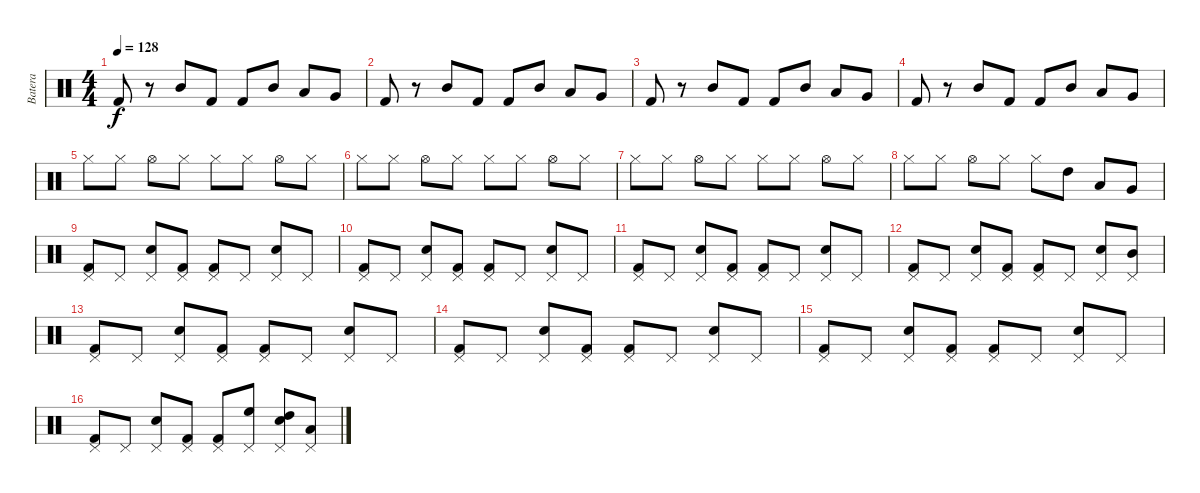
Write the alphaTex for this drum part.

\track ("Batera" "Batera") {instrument percussion}
\staff {score}
\articulation defaults
\ts (4 4)
\tempo 128
\clef neutral
\ks c "Kick (hit) 2".8{dy f}
r.8 "Mid Tom (hit)".8 "Kick (hit) 2".8 "Kick (hit) 2".8 "Mid Tom (hit)".8 "Low Tom (hit)".8 "Very Low Tom (hit)".8 |
"Kick (hit) 2".8 r.8 "Mid Tom (hit)".8 "Kick (hit) 2".8 "Kick (hit) 2".8 "Mid Tom (hit)".8 "Low Tom (hit)".8 "Very Low Tom (hit)".8 |
"Kick (hit) 2".8 r.8 "Mid Tom (hit)".8 "Kick (hit) 2".8 "Kick (hit) 2".8 "Mid Tom (hit)".8 "Low Tom (hit)".8 "Very Low Tom (hit)".8 |
"Kick (hit) 2".8 r.8 "Mid Tom (hit)".8 "Kick (hit) 2".8 "Kick (hit) 2".8 "Mid Tom (hit)".8 "Low Tom (hit)".8 "Very Low Tom (hit)".8 |
"Hi-Hat (closed)".8 "Hi-Hat (closed)".8 "Hi-Hat (open)".8 "Hi-Hat (closed)".8 "Hi-Hat (closed)".8 "Hi-Hat (closed)".8 "Hi-Hat (open)".8 "Hi-Hat (closed)".8 |
"Hi-Hat (closed)".8 "Hi-Hat (closed)".8 "Hi-Hat (open)".8 "Hi-Hat (closed)".8 "Hi-Hat (closed)".8 "Hi-Hat (closed)".8 "Hi-Hat (open)".8 "Hi-Hat (closed)".8 |
"Hi-Hat (closed)".8 "Hi-Hat (closed)".8 "Hi-Hat (open)".8 "Hi-Hat (closed)".8 "Hi-Hat (closed)".8 "Hi-Hat (closed)".8 "Hi-Hat (open)".8 "Hi-Hat (closed)".8 |
"Hi-Hat (closed)".8 "Hi-Hat (closed)".8 "Hi-Hat (open)".8 "Hi-Hat (closed)".8 "Hi-Hat (closed)".8 "High Tom (hit)".8 "Low Tom (hit)".8 "Very Low Tom (hit)".8 |
("Pedal Hi-Hat (hit)" "Kick (hit) 2").8 "Pedal Hi-Hat (hit)".8 ("Pedal Hi-Hat (hit)" "Snare (hit) 2").8 ("Pedal Hi-Hat (hit)" "Kick (hit) 2").8 ("Pedal Hi-Hat (hit)" "Kick (hit) 2").8 "Pedal Hi-Hat (hit)".8 ("Pedal Hi-Hat (hit)" "Snare (hit) 2").8 "Pedal Hi-Hat (hit)".8 |
("Pedal Hi-Hat (hit)" "Kick (hit) 2").8 "Pedal Hi-Hat (hit)".8 ("Pedal Hi-Hat (hit)" "Snare (hit) 2").8 ("Pedal Hi-Hat (hit)" "Kick (hit) 2").8 ("Pedal Hi-Hat (hit)" "Kick (hit) 2").8 "Pedal Hi-Hat (hit)".8 ("Pedal Hi-Hat (hit)" "Snare (hit) 2").8 "Pedal Hi-Hat (hit)".8 |
("Pedal Hi-Hat (hit)" "Kick (hit) 2").8 "Pedal Hi-Hat (hit)".8 ("Pedal Hi-Hat (hit)" "Snare (hit) 2").8 ("Pedal Hi-Hat (hit)" "Kick (hit) 2").8 ("Pedal Hi-Hat (hit)" "Kick (hit) 2").8 "Pedal Hi-Hat (hit)".8 ("Pedal Hi-Hat (hit)" "Snare (hit) 2").8 "Pedal Hi-Hat (hit)".8 |
("Pedal Hi-Hat (hit)" "Kick (hit) 2").8 "Pedal Hi-Hat (hit)".8 ("Pedal Hi-Hat (hit)" "Snare (hit) 2").8 ("Pedal Hi-Hat (hit)" "Kick (hit) 2").8 ("Pedal Hi-Hat (hit)" "Kick (hit) 2").8 "Pedal Hi-Hat (hit)".8 ("Pedal Hi-Hat (hit)" "Snare (hit) 2").8 ("Mid Tom (hit)" "Pedal Hi-Hat (hit)").8 |
("Pedal Hi-Hat (hit)" "Kick (hit) 2").8 "Pedal Hi-Hat (hit)".8 ("Pedal Hi-Hat (hit)" "Snare (hit) 2").8 ("Pedal Hi-Hat (hit)" "Kick (hit) 2").8 ("Pedal Hi-Hat (hit)" "Kick (hit) 2").8 "Pedal Hi-Hat (hit)".8 ("Pedal Hi-Hat (hit)" "Snare (hit) 2").8 "Pedal Hi-Hat (hit)".8 |
("Pedal Hi-Hat (hit)" "Kick (hit) 2").8 "Pedal Hi-Hat (hit)".8 ("Pedal Hi-Hat (hit)" "Snare (hit) 2").8 ("Pedal Hi-Hat (hit)" "Kick (hit) 2").8 ("Pedal Hi-Hat (hit)" "Kick (hit) 2").8 "Pedal Hi-Hat (hit)".8 ("Pedal Hi-Hat (hit)" "Snare (hit) 2").8 "Pedal Hi-Hat (hit)".8 |
("Pedal Hi-Hat (hit)" "Kick (hit) 2").8 "Pedal Hi-Hat (hit)".8 ("Pedal Hi-Hat (hit)" "Snare (hit) 2").8 ("Pedal Hi-Hat (hit)" "Kick (hit) 2").8 ("Pedal Hi-Hat (hit)" "Kick (hit) 2").8 "Pedal Hi-Hat (hit)".8 ("Pedal Hi-Hat (hit)" "Snare (hit) 2").8 "Pedal Hi-Hat (hit)".8 |
("Pedal Hi-Hat (hit)" "Kick (hit) 2").8 "Pedal Hi-Hat (hit)".8 ("Pedal Hi-Hat (hit)" "Snare (hit) 2").8 ("Pedal Hi-Hat (hit)" "Kick (hit) 2").8 ("Pedal Hi-Hat (hit)" "Kick (hit) 2").8 ("High Floor Tom (hit)" "Pedal Hi-Hat (hit)").8 ("High Tom (hit)" "Pedal Hi-Hat (hit)" "Snare (hit) 2").8 ("Low Tom (hit)" "Pedal Hi-Hat (hit)").8
